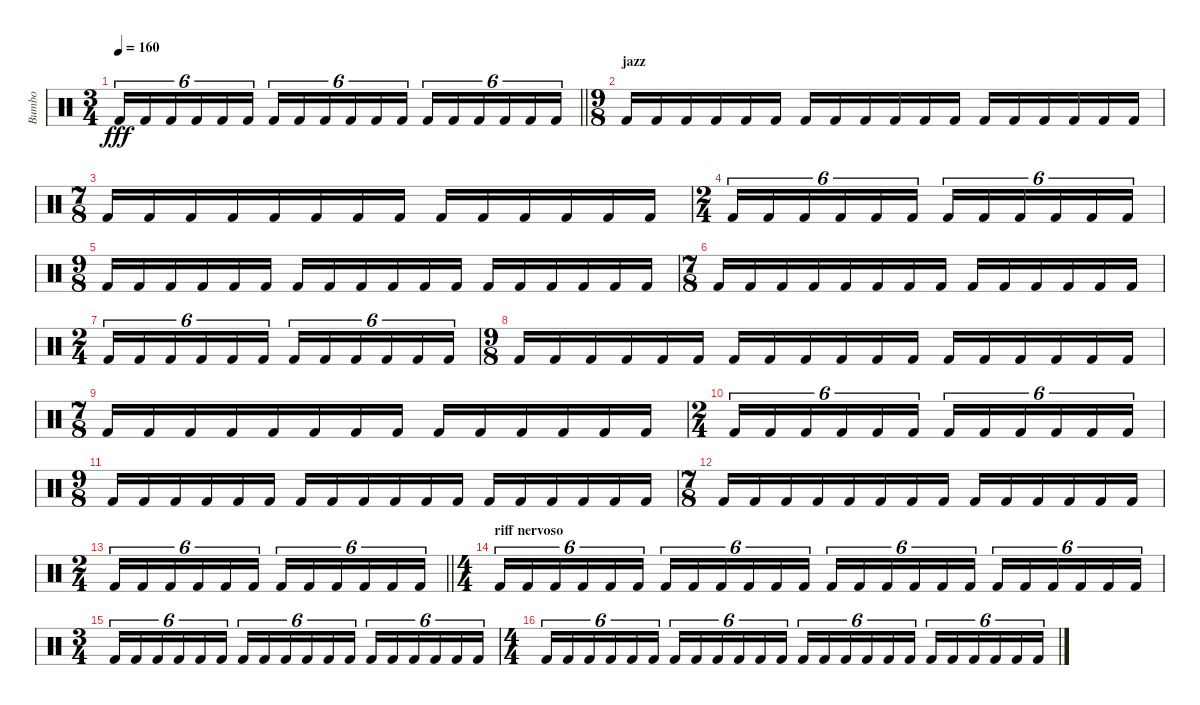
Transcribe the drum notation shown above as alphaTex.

\track ("Bumbo" "Bumbo") {instrument percussion}
\staff {score}
\articulation defaults
\ts (3 4)
\tempo 160
\clef neutral
\barLineRight lightlight
\ks c "Kick (hit) 2".16{tu (6 4) dy fff} "Kick (hit) 2".16{tu (6 4)} "Kick (hit) 2".16{tu (6 4)} "Kick (hit) 2".16{tu (6 4)} "Kick (hit) 2".16{tu (6 4)} "Kick (hit) 2".16{tu (6 4)} "Kick (hit) 2".16{tu (6 4)} "Kick (hit) 2".16{tu (6 4)} "Kick (hit) 2".16{tu (6 4)} "Kick (hit) 2".16{tu (6 4)} "Kick (hit) 2".16{tu (6 4)} "Kick (hit) 2".16{tu (6 4)} "Kick (hit) 2".16{tu (6 4)} "Kick (hit) 2".16{tu (6 4)} "Kick (hit) 2".16{tu (6 4)} "Kick (hit) 2".16{tu (6 4)} "Kick (hit) 2".16{tu (6 4)} "Kick (hit) 2".16{tu (6 4)}
|
\ts (9 8)
\section ("" "jazz")
"Kick (hit) 2".16 "Kick (hit) 2".16 "Kick (hit) 2".16 "Kick (hit) 2".16 "Kick (hit) 2".16 "Kick (hit) 2".16 "Kick (hit) 2".16 "Kick (hit) 2".16 "Kick (hit) 2".16 "Kick (hit) 2".16 "Kick (hit) 2".16 "Kick (hit) 2".16 "Kick (hit) 2".16 "Kick (hit) 2".16 "Kick (hit) 2".16 "Kick (hit) 2".16 "Kick (hit) 2".16 "Kick (hit) 2".16 |
\ts (7 8)
"Kick (hit) 2".16 "Kick (hit) 2".16 "Kick (hit) 2".16 "Kick (hit) 2".16 "Kick (hit) 2".16 "Kick (hit) 2".16 "Kick (hit) 2".16 "Kick (hit) 2".16 "Kick (hit) 2".16 "Kick (hit) 2".16 "Kick (hit) 2".16 "Kick (hit) 2".16 "Kick (hit) 2".16 "Kick (hit) 2".16 |
\ts (2 4)
"Kick (hit) 2".16{tu (6 4)} "Kick (hit) 2".16{tu (6 4)} "Kick (hit) 2".16{tu (6 4)} "Kick (hit) 2".16{tu (6 4)} "Kick (hit) 2".16{tu (6 4)} "Kick (hit) 2".16{tu (6 4)} "Kick (hit) 2".16{tu (6 4)} "Kick (hit) 2".16{tu (6 4)} "Kick (hit) 2".16{tu (6 4)} "Kick (hit) 2".16{tu (6 4)} "Kick (hit) 2".16{tu (6 4)} "Kick (hit) 2".16{tu (6 4)} |
\ts (9 8)
"Kick (hit) 2".16 "Kick (hit) 2".16 "Kick (hit) 2".16 "Kick (hit) 2".16 "Kick (hit) 2".16 "Kick (hit) 2".16 "Kick (hit) 2".16 "Kick (hit) 2".16 "Kick (hit) 2".16 "Kick (hit) 2".16 "Kick (hit) 2".16 "Kick (hit) 2".16 "Kick (hit) 2".16 "Kick (hit) 2".16 "Kick (hit) 2".16 "Kick (hit) 2".16 "Kick (hit) 2".16 "Kick (hit) 2".16 |
\ts (7 8)
"Kick (hit) 2".16 "Kick (hit) 2".16 "Kick (hit) 2".16 "Kick (hit) 2".16 "Kick (hit) 2".16 "Kick (hit) 2".16 "Kick (hit) 2".16 "Kick (hit) 2".16 "Kick (hit) 2".16 "Kick (hit) 2".16 "Kick (hit) 2".16 "Kick (hit) 2".16 "Kick (hit) 2".16 "Kick (hit) 2".16 |
\ts (2 4)
"Kick (hit) 2".16{tu (6 4)} "Kick (hit) 2".16{tu (6 4)} "Kick (hit) 2".16{tu (6 4)} "Kick (hit) 2".16{tu (6 4)} "Kick (hit) 2".16{tu (6 4)} "Kick (hit) 2".16{tu (6 4)} "Kick (hit) 2".16{tu (6 4)} "Kick (hit) 2".16{tu (6 4)} "Kick (hit) 2".16{tu (6 4)} "Kick (hit) 2".16{tu (6 4)} "Kick (hit) 2".16{tu (6 4)} "Kick (hit) 2".16{tu (6 4)} |
\ts (9 8)
"Kick (hit) 2".16 "Kick (hit) 2".16 "Kick (hit) 2".16 "Kick (hit) 2".16 "Kick (hit) 2".16 "Kick (hit) 2".16 "Kick (hit) 2".16 "Kick (hit) 2".16 "Kick (hit) 2".16 "Kick (hit) 2".16 "Kick (hit) 2".16 "Kick (hit) 2".16 "Kick (hit) 2".16 "Kick (hit) 2".16 "Kick (hit) 2".16 "Kick (hit) 2".16 "Kick (hit) 2".16 "Kick (hit) 2".16 |
\ts (7 8)
"Kick (hit) 2".16 "Kick (hit) 2".16 "Kick (hit) 2".16 "Kick (hit) 2".16 "Kick (hit) 2".16 "Kick (hit) 2".16 "Kick (hit) 2".16 "Kick (hit) 2".16 "Kick (hit) 2".16 "Kick (hit) 2".16 "Kick (hit) 2".16 "Kick (hit) 2".16 "Kick (hit) 2".16 "Kick (hit) 2".16 |
\ts (2 4)
"Kick (hit) 2".16{tu (6 4)} "Kick (hit) 2".16{tu (6 4)} "Kick (hit) 2".16{tu (6 4)} "Kick (hit) 2".16{tu (6 4)} "Kick (hit) 2".16{tu (6 4)} "Kick (hit) 2".16{tu (6 4)} "Kick (hit) 2".16{tu (6 4)} "Kick (hit) 2".16{tu (6 4)} "Kick (hit) 2".16{tu (6 4)} "Kick (hit) 2".16{tu (6 4)} "Kick (hit) 2".16{tu (6 4)} "Kick (hit) 2".16{tu (6 4)} |
\ts (9 8)
"Kick (hit) 2".16 "Kick (hit) 2".16 "Kick (hit) 2".16 "Kick (hit) 2".16 "Kick (hit) 2".16 "Kick (hit) 2".16 "Kick (hit) 2".16 "Kick (hit) 2".16 "Kick (hit) 2".16 "Kick (hit) 2".16 "Kick (hit) 2".16 "Kick (hit) 2".16 "Kick (hit) 2".16 "Kick (hit) 2".16 "Kick (hit) 2".16 "Kick (hit) 2".16 "Kick (hit) 2".16 "Kick (hit) 2".16 |
\ts (7 8)
"Kick (hit) 2".16 "Kick (hit) 2".16 "Kick (hit) 2".16 "Kick (hit) 2".16 "Kick (hit) 2".16 "Kick (hit) 2".16 "Kick (hit) 2".16 "Kick (hit) 2".16 "Kick (hit) 2".16 "Kick (hit) 2".16 "Kick (hit) 2".16 "Kick (hit) 2".16 "Kick (hit) 2".16 "Kick (hit) 2".16 |
\ts (2 4)
\barLineRight lightlight "Kick (hit) 2".16{tu (6 4)} "Kick (hit) 2".16{tu (6 4)} "Kick (hit) 2".16{tu (6 4)} "Kick (hit) 2".16{tu (6 4)} "Kick (hit) 2".16{tu (6 4)} "Kick (hit) 2".16{tu (6 4)} "Kick (hit) 2".16{tu (6 4)} "Kick (hit) 2".16{tu (6 4)} "Kick (hit) 2".16{tu (6 4)} "Kick (hit) 2".16{tu (6 4)} "Kick (hit) 2".16{tu (6 4)} "Kick (hit) 2".16{tu (6 4)}
|
\ts (4 4)
\section ("" "riff nervoso")
"Kick (hit) 2".16{tu (6 4)} "Kick (hit) 2".16{tu (6 4)} "Kick (hit) 2".16{tu (6 4)} "Kick (hit) 2".16{tu (6 4)} "Kick (hit) 2".16{tu (6 4)} "Kick (hit) 2".16{tu (6 4)} "Kick (hit) 2".16{tu (6 4)} "Kick (hit) 2".16{tu (6 4)} "Kick (hit) 2".16{tu (6 4)} "Kick (hit) 2".16{tu (6 4)} "Kick (hit) 2".16{tu (6 4)} "Kick (hit) 2".16{tu (6 4)} "Kick (hit) 2".16{tu (6 4)} "Kick (hit) 2".16{tu (6 4)} "Kick (hit) 2".16{tu (6 4)} "Kick (hit) 2".16{tu (6 4)} "Kick (hit) 2".16{tu (6 4)} "Kick (hit) 2".16{tu (6 4)} "Kick (hit) 2".16{tu (6 4)} "Kick (hit) 2".16{tu (6 4)} "Kick (hit) 2".16{tu (6 4)} "Kick (hit) 2".16{tu (6 4)} "Kick (hit) 2".16{tu (6 4)} "Kick (hit) 2".16{tu (6 4)} |
\ts (3 4)
"Kick (hit) 2".16{tu (6 4)} "Kick (hit) 2".16{tu (6 4)} "Kick (hit) 2".16{tu (6 4)} "Kick (hit) 2".16{tu (6 4)} "Kick (hit) 2".16{tu (6 4)} "Kick (hit) 2".16{tu (6 4)} "Kick (hit) 2".16{tu (6 4)} "Kick (hit) 2".16{tu (6 4)} "Kick (hit) 2".16{tu (6 4)} "Kick (hit) 2".16{tu (6 4)} "Kick (hit) 2".16{tu (6 4)} "Kick (hit) 2".16{tu (6 4)} "Kick (hit) 2".16{tu (6 4)} "Kick (hit) 2".16{tu (6 4)} "Kick (hit) 2".16{tu (6 4)} "Kick (hit) 2".16{tu (6 4)} "Kick (hit) 2".16{tu (6 4)} "Kick (hit) 2".16{tu (6 4)} |
\ts (4 4)
"Kick (hit) 2".16{tu (6 4)} "Kick (hit) 2".16{tu (6 4)} "Kick (hit) 2".16{tu (6 4)} "Kick (hit) 2".16{tu (6 4)} "Kick (hit) 2".16{tu (6 4)} "Kick (hit) 2".16{tu (6 4)} "Kick (hit) 2".16{tu (6 4)} "Kick (hit) 2".16{tu (6 4)} "Kick (hit) 2".16{tu (6 4)} "Kick (hit) 2".16{tu (6 4)} "Kick (hit) 2".16{tu (6 4)} "Kick (hit) 2".16{tu (6 4)} "Kick (hit) 2".16{tu (6 4)} "Kick (hit) 2".16{tu (6 4)} "Kick (hit) 2".16{tu (6 4)} "Kick (hit) 2".16{tu (6 4)} "Kick (hit) 2".16{tu (6 4)} "Kick (hit) 2".16{tu (6 4)} "Kick (hit) 2".16{tu (6 4)} "Kick (hit) 2".16{tu (6 4)} "Kick (hit) 2".16{tu (6 4)} "Kick (hit) 2".16{tu (6 4)} "Kick (hit) 2".16{tu (6 4)} "Kick (hit) 2".16{tu (6 4)}
